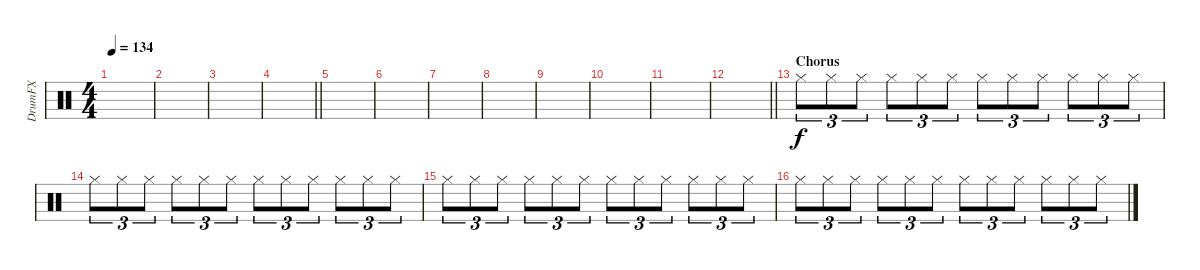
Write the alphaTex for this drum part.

\track ("DrumFX" "DrumFX") {instrument percussion}
\staff {score}
\articulation defaults
\ts (4 4)
\section ("" "")
\tempo 134
\clef neutral
\ks c
|
|
|
\barLineRight lightlight
|
\section ("" "")
|
|
|
|
|
|
|
\barLineRight lightlight
|
\section ("" "Chorus")
"Hi-Hat (closed)".8{tu (3 2)} "Hi-Hat (closed)".8{tu (3 2)} "Hi-Hat (closed)".8{tu (3 2)} "Hi-Hat (closed)".8{tu (3 2)} "Hi-Hat (closed)".8{tu (3 2)} "Hi-Hat (closed)".8{tu (3 2)} "Hi-Hat (closed)".8{tu (3 2)} "Hi-Hat (closed)".8{tu (3 2)} "Hi-Hat (closed)".8{tu (3 2)} "Hi-Hat (closed)".8{tu (3 2)} "Hi-Hat (closed)".8{tu (3 2)} "Hi-Hat (closed)".8{tu (3 2)} |
"Hi-Hat (closed)".8{tu (3 2)} "Hi-Hat (closed)".8{tu (3 2)} "Hi-Hat (closed)".8{tu (3 2)} "Hi-Hat (closed)".8{tu (3 2)} "Hi-Hat (closed)".8{tu (3 2)} "Hi-Hat (closed)".8{tu (3 2)} "Hi-Hat (closed)".8{tu (3 2)} "Hi-Hat (closed)".8{tu (3 2)} "Hi-Hat (closed)".8{tu (3 2)} "Hi-Hat (closed)".8{tu (3 2)} "Hi-Hat (closed)".8{tu (3 2)} "Hi-Hat (closed)".8{tu (3 2)} |
"Hi-Hat (closed)".8{tu (3 2)} "Hi-Hat (closed)".8{tu (3 2)} "Hi-Hat (closed)".8{tu (3 2)} "Hi-Hat (closed)".8{tu (3 2)} "Hi-Hat (closed)".8{tu (3 2)} "Hi-Hat (closed)".8{tu (3 2)} "Hi-Hat (closed)".8{tu (3 2)} "Hi-Hat (closed)".8{tu (3 2)} "Hi-Hat (closed)".8{tu (3 2)} "Hi-Hat (closed)".8{tu (3 2)} "Hi-Hat (closed)".8{tu (3 2)} "Hi-Hat (closed)".8{tu (3 2)} |
"Hi-Hat (closed)".8{tu (3 2)} "Hi-Hat (closed)".8{tu (3 2)} "Hi-Hat (closed)".8{tu (3 2)} "Hi-Hat (closed)".8{tu (3 2)} "Hi-Hat (closed)".8{tu (3 2)} "Hi-Hat (closed)".8{tu (3 2)} "Hi-Hat (closed)".8{tu (3 2)} "Hi-Hat (closed)".8{tu (3 2)} "Hi-Hat (closed)".8{tu (3 2)} "Hi-Hat (closed)".8{tu (3 2)} "Hi-Hat (closed)".8{tu (3 2)} "Hi-Hat (closed)".8{tu (3 2)}
